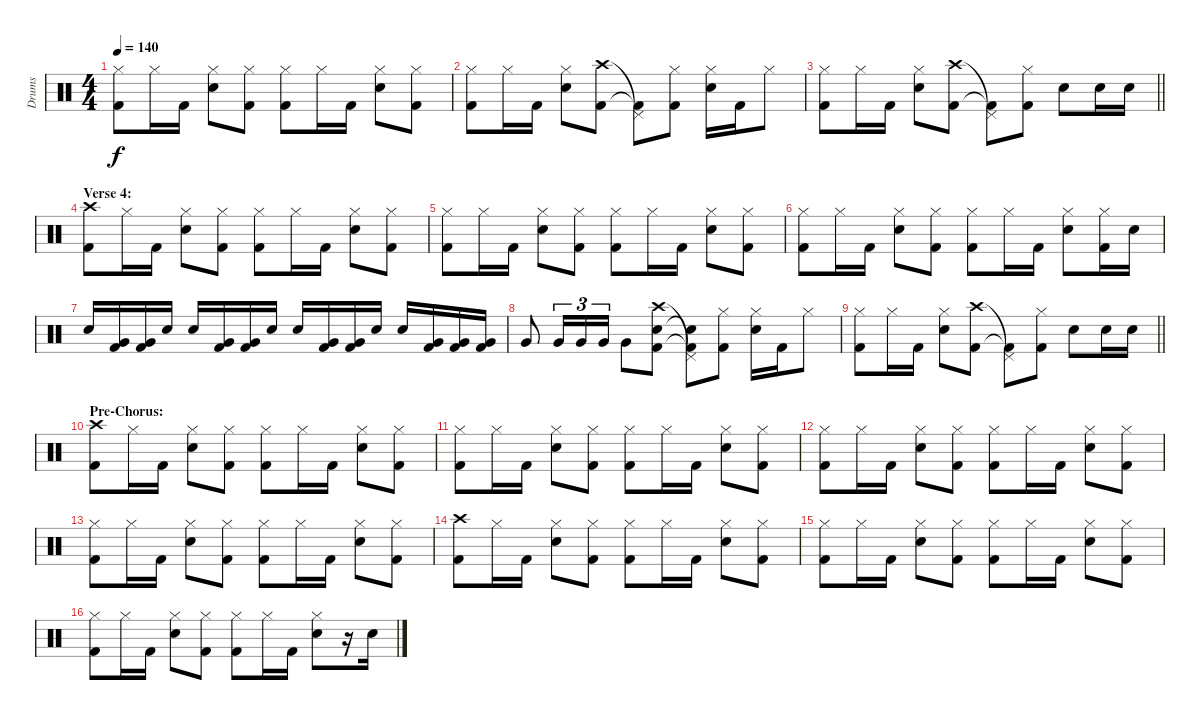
\track ("Drums" "Drums") {instrument percussion}
\staff {score}
\articulation defaults
\ts (4 4)
\tempo 140
\clef neutral
\ks c
("Hi-Hat (closed)" "Kick (hit) 2").8{dy f} "Hi-Hat (closed)".16 "Kick (hit) 2".16 ("Hi-Hat (closed)" "Snare (hit) 2").8 ("Hi-Hat (closed)" "Kick (hit) 2").8 ("Hi-Hat (closed)" "Kick (hit) 2").8 "Hi-Hat (closed)".16 "Kick (hit) 2".16 ("Hi-Hat (closed)" "Snare (hit) 2").8 ("Hi-Hat (closed)" "Kick (hit) 2").8 |
("Hi-Hat (closed)" "Kick (hit) 2").8 "Hi-Hat (closed)".16 "Kick (hit) 2".16 ("Hi-Hat (closed)" "Snare (hit) 2").8 ("Crash high (hit)" "Kick (hit) 2").8 ("Pedal Hi-Hat (hit)"{t} "Kick (hit) 2"{t}).8 ("Hi-Hat (closed)" "Kick (hit) 2").8 ("Hi-Hat (closed)" "Snare (hit) 2").16 "Kick (hit) 2".16 "Hi-Hat (closed)".8 |
\barLineRight lightlight
("Hi-Hat (closed)" "Kick (hit) 2").8 "Hi-Hat (closed)".16 "Kick (hit) 2".16 ("Hi-Hat (closed)" "Snare (hit) 2").8 ("Crash high (hit)" "Kick (hit) 2").8 ("Pedal Hi-Hat (hit)"{t} "Kick (hit) 2"{t}).8 ("Hi-Hat (closed)" "Kick (hit) 2").8 "Snare (hit) 2".8 "Snare (hit) 2".16 "Snare (hit) 2".16 |
\section ("" "Verse 4:")
("Crash high (hit)" "Kick (hit) 2").8 "Hi-Hat (closed)".16 "Kick (hit) 2".16 ("Hi-Hat (closed)" "Snare (hit) 2").8 ("Hi-Hat (closed)" "Kick (hit) 2").8 ("Hi-Hat (closed)" "Kick (hit) 2").8 "Hi-Hat (closed)".16 "Kick (hit) 2".16 ("Hi-Hat (closed)" "Snare (hit) 2").8 ("Hi-Hat (closed)" "Kick (hit) 2").8 |
("Hi-Hat (closed)" "Kick (hit) 2").8 "Hi-Hat (closed)".16 "Kick (hit) 2".16 ("Hi-Hat (closed)" "Snare (hit) 2").8 ("Hi-Hat (closed)" "Kick (hit) 2").8 ("Hi-Hat (closed)" "Kick (hit) 2").8 "Hi-Hat (closed)".16 "Kick (hit) 2".16 ("Hi-Hat (closed)" "Snare (hit) 2").8 ("Hi-Hat (closed)" "Kick (hit) 2").8 |
("Hi-Hat (closed)" "Kick (hit) 2").8 "Hi-Hat (closed)".16 "Kick (hit) 2".16 ("Hi-Hat (closed)" "Snare (hit) 2").8 ("Hi-Hat (closed)" "Kick (hit) 2").8 ("Hi-Hat (closed)" "Kick (hit) 2").8 "Hi-Hat (closed)".16 "Kick (hit) 2".16 ("Hi-Hat (closed)" "Snare (hit) 2").8 ("Hi-Hat (closed)" "Kick (hit) 2").16 "Snare (hit) 2".16 |
"Snare (hit) 2".16 ("Very Low Tom (hit)" "Kick (hit) 2").16 ("Very Low Tom (hit)" "Kick (hit) 2").16 "Snare (hit) 2".16 "Snare (hit) 2".16 ("Very Low Tom (hit)" "Kick (hit) 2").16 ("Very Low Tom (hit)" "Kick (hit) 2").16 "Snare (hit) 2".16 "Snare (hit) 2".16 ("Very Low Tom (hit)" "Kick (hit) 2").16 ("Very Low Tom (hit)" "Kick (hit) 2").16 "Snare (hit) 2".16 "Snare (hit) 2".16 ("Very Low Tom (hit)" "Kick (hit) 2").16 ("Very Low Tom (hit)" "Kick (hit) 2").16 ("Very Low Tom (hit)" "Kick (hit) 2").16 |
"Very Low Tom (hit)".8 "Very Low Tom (hit)".16{tu (3 2)} "Very Low Tom (hit)".16{tu (3 2)} "Very Low Tom (hit)".16{tu (3 2)} "Very Low Tom (hit)".8 ("Crash high (hit)" "Snare (hit) 2" "Kick (hit) 2").8 ("Pedal Hi-Hat (hit)"{t} "Snare (hit)"{t} "Kick (hit) 2"{t}).8 ("Hi-Hat (closed)" "Kick (hit) 2").8 ("Hi-Hat (closed)" "Snare (hit) 2").16 "Kick (hit) 2".16 "Hi-Hat (closed)".8 |
\barLineRight lightlight
("Hi-Hat (closed)" "Kick (hit) 2").8 "Hi-Hat (closed)".16 "Kick (hit) 2".16 ("Hi-Hat (closed)" "Snare (hit) 2").8 ("Crash high (hit)" "Kick (hit) 2").8 ("Pedal Hi-Hat (hit)"{t} "Kick (hit) 2"{t}).8 ("Hi-Hat (closed)" "Kick (hit) 2").8 "Snare (hit) 2".8 "Snare (hit) 2".16 "Snare (hit) 2".16 |
\section ("" "Pre-Chorus:")
("Crash high (hit)" "Kick (hit) 2").8 "Hi-Hat (closed)".16 "Kick (hit) 2".16 ("Hi-Hat (closed)" "Snare (hit) 2").8 ("Hi-Hat (closed)" "Kick (hit) 2").8 ("Hi-Hat (closed)" "Kick (hit) 2").8 "Hi-Hat (closed)".16 "Kick (hit) 2".16 ("Hi-Hat (closed)" "Snare (hit) 2").8 ("Hi-Hat (closed)" "Kick (hit) 2").8 |
("Hi-Hat (closed)" "Kick (hit) 2").8 "Hi-Hat (closed)".16 "Kick (hit) 2".16 ("Hi-Hat (closed)" "Snare (hit) 2").8 ("Hi-Hat (closed)" "Kick (hit) 2").8 ("Hi-Hat (closed)" "Kick (hit) 2").8 "Hi-Hat (closed)".16 "Kick (hit) 2".16 ("Hi-Hat (closed)" "Snare (hit) 2").8 ("Hi-Hat (closed)" "Kick (hit) 2").8 |
("Hi-Hat (closed)" "Kick (hit) 2").8 "Hi-Hat (closed)".16 "Kick (hit) 2".16 ("Hi-Hat (closed)" "Snare (hit) 2").8 ("Hi-Hat (closed)" "Kick (hit) 2").8 ("Hi-Hat (closed)" "Kick (hit) 2").8 "Hi-Hat (closed)".16 "Kick (hit) 2".16 ("Hi-Hat (closed)" "Snare (hit) 2").8 ("Hi-Hat (closed)" "Kick (hit) 2").8 |
("Hi-Hat (closed)" "Kick (hit) 2").8 "Hi-Hat (closed)".16 "Kick (hit) 2".16 ("Hi-Hat (closed)" "Snare (hit) 2").8 ("Hi-Hat (closed)" "Kick (hit) 2").8 ("Hi-Hat (closed)" "Kick (hit) 2").8 "Hi-Hat (closed)".16 "Kick (hit) 2".16 ("Hi-Hat (closed)" "Snare (hit) 2").8 ("Hi-Hat (closed)" "Kick (hit) 2").8 |
("Crash high (hit)" "Kick (hit) 2").8 "Hi-Hat (closed)".16 "Kick (hit) 2".16 ("Hi-Hat (closed)" "Snare (hit) 2").8 ("Hi-Hat (closed)" "Kick (hit) 2").8 ("Hi-Hat (closed)" "Kick (hit) 2").8 "Hi-Hat (closed)".16 "Kick (hit) 2".16 ("Hi-Hat (closed)" "Snare (hit) 2").8 ("Hi-Hat (closed)" "Kick (hit) 2").8 |
("Hi-Hat (closed)" "Kick (hit) 2").8 "Hi-Hat (closed)".16 "Kick (hit) 2".16 ("Hi-Hat (closed)" "Snare (hit) 2").8 ("Hi-Hat (closed)" "Kick (hit) 2").8 ("Hi-Hat (closed)" "Kick (hit) 2").8 "Hi-Hat (closed)".16 "Kick (hit) 2".16 ("Hi-Hat (closed)" "Snare (hit) 2").8 ("Hi-Hat (closed)" "Kick (hit) 2").8 |
("Hi-Hat (closed)" "Kick (hit) 2").8 "Hi-Hat (closed)".16 "Kick (hit) 2".16 ("Hi-Hat (closed)" "Snare (hit) 2").8 ("Hi-Hat (closed)" "Kick (hit) 2").8 ("Hi-Hat (closed)" "Kick (hit) 2").8 "Hi-Hat (closed)".16 "Kick (hit) 2".16 ("Hi-Hat (closed)" "Snare (hit) 2").8 r.16 "Snare (hit) 2".16
